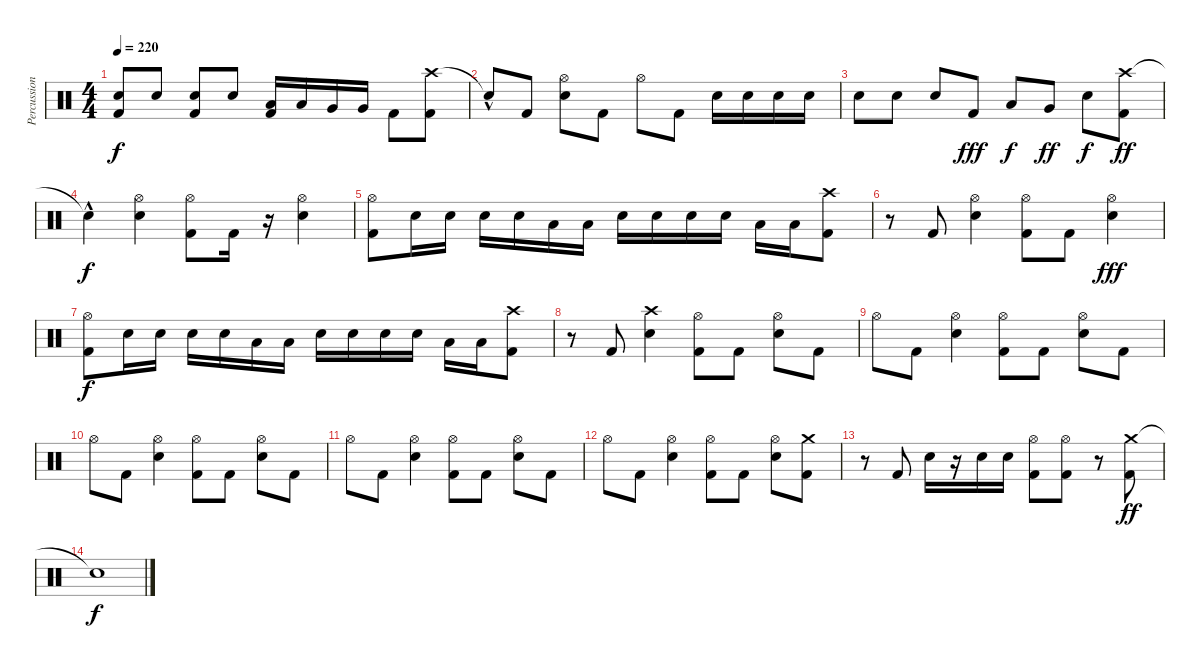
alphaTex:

\track ("Percussion" "Percussion") {instrument percussion}
\staff {score}
\articulation defaults
\ts (4 4)
\tempo 220
\clef neutral
\ks c
("Electric Snare (hit)" "Kick (hit) 2").8{dy f} "Electric Snare (hit)".8 ("Electric Snare (hit)" "Kick (hit) 2").8 "Electric Snare (hit)".8 ("Low Tom (hit)" "Kick (hit) 2").16 "Low Tom (hit)".16 "Very Low Tom (hit)".16 "Very Low Tom (hit)".16 "Kick (hit) 2".8 ("Crash high (hit)" "Kick (hit) 2").8 |
"Snare (hit)"{hac t}.8 "Kick (hit) 2".8 ("Hi-Hat (open)" "Electric Snare (hit)").8 "Kick (hit) 2".8 "Hi-Hat (open)".8 "Kick (hit) 2".8 "Electric Snare (hit)".16 "Electric Snare (hit)".16 "Electric Snare (hit)".16 "Electric Snare (hit)".16 |
"Electric Snare (hit)".8 "Electric Snare (hit)".8 "Electric Snare (hit)".8 "Kick (hit) 2".8{dy fff} "Low Tom (hit)".8{dy f} "Very Low Tom (hit)".8{dy ff} "Electric Snare (hit)".8{dy f} ("Crash high (hit)" "Kick (hit) 2").8{dy ff} |
"Snare (hit)"{hac t}.4{dy f} ("Hi-Hat (open)" "Electric Snare (hit)").4 ("Hi-Hat (open)" "Kick (hit) 2").8 "Kick (hit) 2".16 r.16 ("Hi-Hat (open)" "Electric Snare (hit)").4 |
("Hi-Hat (open)" "Kick (hit) 2").8 "Electric Snare (hit)".16 "Electric Snare (hit)".16 "Electric Snare (hit)".16 "Electric Snare (hit)".16 "Low Tom (hit)".16 "Low Tom (hit)".16 "Electric Snare (hit)".16 "Electric Snare (hit)".16 "Electric Snare (hit)".16 "Electric Snare (hit)".16 "Low Tom (hit)".16 "Low Tom (hit)".16 ("Crash high (hit)" "Kick (hit) 2").8 |
r.8 "Kick (hit) 2".8 ("Hi-Hat (open)" "Electric Snare (hit)").4 ("Hi-Hat (open)" "Kick (hit) 2").8 "Kick (hit) 2".8 ("Hi-Hat (open)" "Electric Snare (hit)").4{dy fff} |
("Hi-Hat (open)" "Kick (hit) 2").8{dy f} "Electric Snare (hit)".16 "Electric Snare (hit)".16 "Electric Snare (hit)".16 "Electric Snare (hit)".16 "Low Tom (hit)".16 "Low Tom (hit)".16 "Electric Snare (hit)".16 "Electric Snare (hit)".16 "Electric Snare (hit)".16 "Electric Snare (hit)".16 "Low Tom (hit)".16 "Low Tom (hit)".16 ("Crash high (hit)" "Kick (hit) 2").8 |
r.8 "Kick (hit) 2".8 ("Crash high (hit)" "Electric Snare (hit)").4 ("Hi-Hat (open)" "Kick (hit) 2").8 "Kick (hit) 2".8 ("Hi-Hat (open)" "Electric Snare (hit)").8 "Kick (hit) 2".8 |
"Hi-Hat (open)".8 "Kick (hit) 2".8 ("Hi-Hat (open)" "Electric Snare (hit)").4 ("Hi-Hat (open)" "Kick (hit) 2").8 "Kick (hit) 2".8 ("Hi-Hat (open)" "Electric Snare (hit)").8 "Kick (hit) 2".8 |
"Hi-Hat (open)".8 "Kick (hit) 2".8 ("Hi-Hat (open)" "Electric Snare (hit)").4 ("Hi-Hat (open)" "Kick (hit) 2").8 "Kick (hit) 2".8 ("Hi-Hat (open)" "Electric Snare (hit)").8 "Kick (hit) 2".8 |
"Hi-Hat (open)".8 "Kick (hit) 2".8 ("Hi-Hat (open)" "Electric Snare (hit)").4 ("Hi-Hat (open)" "Kick (hit) 2").8 "Kick (hit) 2".8 ("Hi-Hat (open)" "Electric Snare (hit)").8 "Kick (hit) 2".8 |
"Hi-Hat (open)".8 "Kick (hit) 2".8 ("Hi-Hat (open)" "Electric Snare (hit)").4 ("Hi-Hat (open)" "Kick (hit) 2").8 "Kick (hit) 2".8 ("Hi-Hat (open)" "Electric Snare (hit)").8 ("Crash medium (hit)" "Kick (hit) 2").8 |
r.8 "Kick (hit) 2".8 "Electric Snare (hit)".16 r.16 "Electric Snare (hit)".16 "Electric Snare (hit)".16 ("Hi-Hat (open)" "Kick (hit) 2").8 ("Hi-Hat (open)" "Kick (hit) 2").8 r.8 ("Crash medium (hit)" "Kick (hit) 2").8{dy ff} |
"Snare (hit)"{t}.1{dy f}
